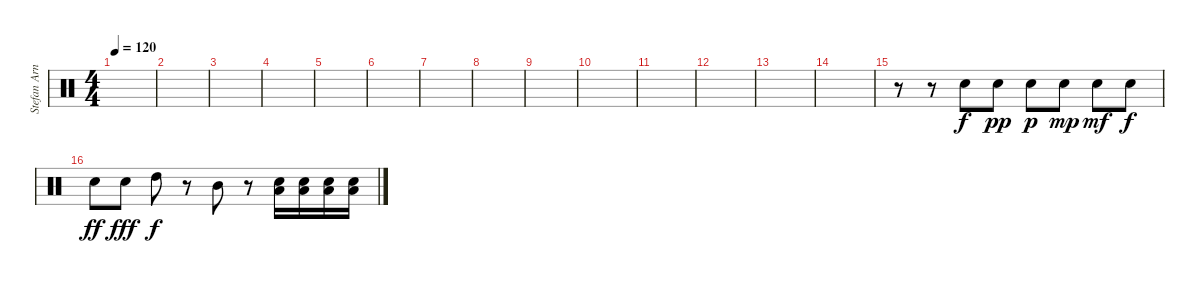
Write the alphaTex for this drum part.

\track ("Stefan Arnold Drums" "Stefan Arn") {instrument percussion}
\staff {score}
\articulation defaults
\ts (4 4)
\tempo 120
\clef neutral
\ks c
|
|
|
|
|
|
|
|
|
|
|
|
|
|
r.8 r.8 "Electric Snare (hit)".8 "Electric Snare (hit)".8{dy pp} "Electric Snare (hit)".8{dy p} "Electric Snare (hit)".8{dy mp} "Electric Snare (hit)".8{dy mf} "Electric Snare (hit)".8{dy f} |
"Electric Snare (hit)".8{dy ff} "Electric Snare (hit)".8{dy fff} "High Tom (hit)".8{dy f} r.8 "Mid Tom (hit)".8 r.8 ("Low Tom (hit)" "Snare (hit) 2").16 ("Low Tom (hit)" "Snare (hit) 2").16 ("Low Tom (hit)" "Snare (hit) 2").16 ("Low Tom (hit)" "Snare (hit) 2").16
